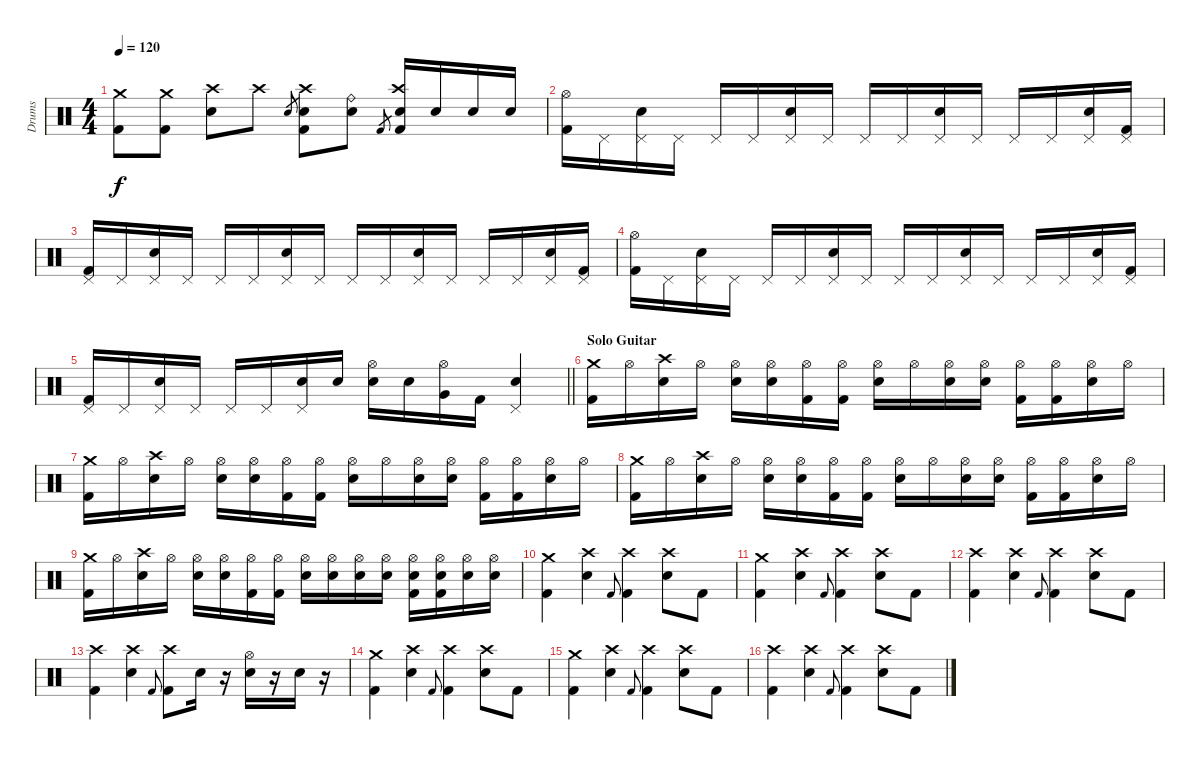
\track ("Drums" "Drums") {instrument percussion}
\staff {score}
\articulation defaults
\ts (4 4)
\tempo 120
\clef neutral
\ks c
("Crash medium (hit)" "Kick (hit) 2").8{dy f} ("Crash medium (hit)" "Kick (hit) 2").8 ("Crash high (hit)" "Electric Snare (hit)").8 "Crash high (hit)".8 "Electric Snare (hit)".8{gr} ("Crash high (hit)" "Electric Snare (hit)" "Kick (hit) 2").8 ("Ride (bell)" "Electric Snare (hit)").8 "Kick (hit) 2".8{gr} ("Crash high (hit)" "Electric Snare (hit)" "Kick (hit) 2").16 "Electric Snare (hit)".16 "Electric Snare (hit)".16 "Electric Snare (hit)".16 |
("Hi-Hat (open)" "Kick (hit) 2").16 "Pedal Hi-Hat (hit)".16 ("Pedal Hi-Hat (hit)" "Electric Snare (hit)").16 "Pedal Hi-Hat (hit)".16 "Pedal Hi-Hat (hit)".16 "Pedal Hi-Hat (hit)".16 ("Pedal Hi-Hat (hit)" "Electric Snare (hit)").16 "Pedal Hi-Hat (hit)".16 "Pedal Hi-Hat (hit)".16 "Pedal Hi-Hat (hit)".16 ("Pedal Hi-Hat (hit)" "Electric Snare (hit)").16 "Pedal Hi-Hat (hit)".16 "Pedal Hi-Hat (hit)".16 "Pedal Hi-Hat (hit)".16 ("Pedal Hi-Hat (hit)" "Electric Snare (hit)").16 ("Pedal Hi-Hat (hit)" "Kick (hit) 2").16 |
("Pedal Hi-Hat (hit)" "Kick (hit) 2").16 "Pedal Hi-Hat (hit)".16 ("Pedal Hi-Hat (hit)" "Electric Snare (hit)").16 "Pedal Hi-Hat (hit)".16 "Pedal Hi-Hat (hit)".16 "Pedal Hi-Hat (hit)".16 ("Pedal Hi-Hat (hit)" "Electric Snare (hit)").16 "Pedal Hi-Hat (hit)".16 "Pedal Hi-Hat (hit)".16 "Pedal Hi-Hat (hit)".16 ("Pedal Hi-Hat (hit)" "Electric Snare (hit)").16 "Pedal Hi-Hat (hit)".16 "Pedal Hi-Hat (hit)".16 "Pedal Hi-Hat (hit)".16 ("Pedal Hi-Hat (hit)" "Electric Snare (hit)").16 ("Pedal Hi-Hat (hit)" "Kick (hit) 2").16 |
("Hi-Hat (open)" "Kick (hit) 2").16 "Pedal Hi-Hat (hit)".16 ("Pedal Hi-Hat (hit)" "Electric Snare (hit)").16 "Pedal Hi-Hat (hit)".16 "Pedal Hi-Hat (hit)".16 "Pedal Hi-Hat (hit)".16 ("Pedal Hi-Hat (hit)" "Electric Snare (hit)").16 "Pedal Hi-Hat (hit)".16 "Pedal Hi-Hat (hit)".16 "Pedal Hi-Hat (hit)".16 ("Pedal Hi-Hat (hit)" "Electric Snare (hit)").16 "Pedal Hi-Hat (hit)".16 "Pedal Hi-Hat (hit)".16 "Pedal Hi-Hat (hit)".16 ("Pedal Hi-Hat (hit)" "Electric Snare (hit)").16 ("Pedal Hi-Hat (hit)" "Kick (hit) 2").16 |
\barLineRight lightlight
("Pedal Hi-Hat (hit)" "Kick (hit) 2").16 "Pedal Hi-Hat (hit)".16 ("Pedal Hi-Hat (hit)" "Electric Snare (hit)").16 "Pedal Hi-Hat (hit)".16 "Pedal Hi-Hat (hit)".16 "Pedal Hi-Hat (hit)".16 ("Pedal Hi-Hat (hit)" "Electric Snare (hit)").16 "Electric Snare (hit)".16 ("Hi-Hat (open)" "Electric Snare (hit)").16 "Electric Snare (hit)".16 ("Hi-Hat (open)" "Very Low Tom (hit)").16 "Kick (hit) 2".16 ("Pedal Hi-Hat (hit)" "Electric Snare (hit)").4 |
\section ("" "Solo Guitar")
("Crash medium (hit)" "Kick (hit) 2").16 "Hi-Hat (open)".16 ("Crash high (hit)" "Electric Snare (hit)").16 "Hi-Hat (open)".16 ("Hi-Hat (open)" "Electric Snare (hit)").16 ("Hi-Hat (open)" "Electric Snare (hit)").16 ("Hi-Hat (open)" "Kick (hit) 2").16 ("Hi-Hat (open)" "Kick (hit) 2").16 ("Hi-Hat (open)" "Electric Snare (hit)").16 "Hi-Hat (open)".16 ("Hi-Hat (open)" "Electric Snare (hit)").16 ("Hi-Hat (open)" "Electric Snare (hit)").16 ("Hi-Hat (open)" "Kick (hit) 2").16 ("Hi-Hat (open)" "Kick (hit) 2").16 ("Hi-Hat (open)" "Electric Snare (hit)").16 "Hi-Hat (open)".16 |
("Crash medium (hit)" "Kick (hit) 2").16 "Hi-Hat (open)".16 ("Crash high (hit)" "Electric Snare (hit)").16 "Hi-Hat (open)".16 ("Hi-Hat (open)" "Electric Snare (hit)").16 ("Hi-Hat (open)" "Electric Snare (hit)").16 ("Hi-Hat (open)" "Kick (hit) 2").16 ("Hi-Hat (open)" "Kick (hit) 2").16 ("Hi-Hat (open)" "Electric Snare (hit)").16 "Hi-Hat (open)".16 ("Hi-Hat (open)" "Electric Snare (hit)").16 ("Hi-Hat (open)" "Electric Snare (hit)").16 ("Hi-Hat (open)" "Kick (hit) 2").16 ("Hi-Hat (open)" "Kick (hit) 2").16 ("Hi-Hat (open)" "Electric Snare (hit)").16 "Hi-Hat (open)".16 |
("Crash medium (hit)" "Kick (hit) 2").16 "Hi-Hat (open)".16 ("Crash high (hit)" "Electric Snare (hit)").16 "Hi-Hat (open)".16 ("Hi-Hat (open)" "Electric Snare (hit)").16 ("Hi-Hat (open)" "Electric Snare (hit)").16 ("Hi-Hat (open)" "Kick (hit) 2").16 ("Hi-Hat (open)" "Kick (hit) 2").16 ("Hi-Hat (open)" "Electric Snare (hit)").16 "Hi-Hat (open)".16 ("Hi-Hat (open)" "Electric Snare (hit)").16 ("Hi-Hat (open)" "Electric Snare (hit)").16 ("Hi-Hat (open)" "Kick (hit) 2").16 ("Hi-Hat (open)" "Kick (hit) 2").16 ("Hi-Hat (open)" "Electric Snare (hit)").16 "Hi-Hat (open)".16 |
("Crash medium (hit)" "Kick (hit) 2").16 "Hi-Hat (open)".16 ("Crash high (hit)" "Electric Snare (hit)").16 "Hi-Hat (open)".16 ("Hi-Hat (open)" "Electric Snare (hit)").16 ("Hi-Hat (open)" "Electric Snare (hit)").16 ("Hi-Hat (open)" "Kick (hit) 2").16 ("Hi-Hat (open)" "Kick (hit) 2").16 ("Hi-Hat (open)" "Electric Snare (hit)").16 ("Hi-Hat (open)" "Electric Snare (hit)").16 ("Hi-Hat (open)" "Electric Snare (hit)").16 ("Hi-Hat (open)" "Electric Snare (hit)").16 ("Hi-Hat (open)" "Electric Snare (hit)" "Kick (hit) 2").16 ("Hi-Hat (open)" "Electric Snare (hit)" "Kick (hit) 2").16 ("Hi-Hat (open)" "Electric Snare (hit)").16 ("Hi-Hat (open)" "Electric Snare (hit)").16 |
("Crash medium (hit)" "Kick (hit) 2").4 ("Crash high (hit)" "Electric Snare (hit)").4 "Kick (hit) 2".8{gr onbeat} ("Crash high (hit)" "Kick (hit) 2").4 ("Crash high (hit)" "Electric Snare (hit)").8 "Kick (hit) 2".8 |
("Crash medium (hit)" "Kick (hit) 2").4 ("Crash high (hit)" "Electric Snare (hit)").4 "Kick (hit) 2".8{gr onbeat} ("Crash high (hit)" "Kick (hit) 2").4 ("Crash high (hit)" "Electric Snare (hit)").8 "Kick (hit) 2".8 |
("Crash high (hit)" "Kick (hit) 2").4 ("Crash high (hit)" "Electric Snare (hit)").4 "Kick (hit) 2".8{gr onbeat} ("Crash high (hit)" "Kick (hit) 2").4 ("Crash high (hit)" "Electric Snare (hit)").8 "Kick (hit) 2".8 |
("Crash high (hit)" "Kick (hit) 2").4 ("Crash high (hit)" "Electric Snare (hit)").4 "Kick (hit) 2".8{gr onbeat} ("Crash high (hit)" "Kick (hit) 2").8 "Electric Snare (hit)".16 r.16 ("Hi-Hat (open)" "Electric Snare (hit)").16 r.16 "Electric Snare (hit)".16 r.16 |
("Crash medium (hit)" "Kick (hit) 2").4 ("Crash high (hit)" "Electric Snare (hit)").4 "Kick (hit) 2".8{gr onbeat} ("Crash high (hit)" "Kick (hit) 2").4 ("Crash high (hit)" "Electric Snare (hit)").8 "Kick (hit) 2".8 |
("Crash medium (hit)" "Kick (hit) 2").4 ("Crash high (hit)" "Electric Snare (hit)").4 "Kick (hit) 2".8{gr onbeat} ("Crash high (hit)" "Kick (hit) 2").4 ("Crash high (hit)" "Electric Snare (hit)").8 "Kick (hit) 2".8 |
("Crash high (hit)" "Kick (hit) 2").4 ("Crash high (hit)" "Electric Snare (hit)").4 "Kick (hit) 2".8{gr onbeat} ("Crash high (hit)" "Kick (hit) 2").4 ("Crash high (hit)" "Electric Snare (hit)").8 "Kick (hit) 2".8
